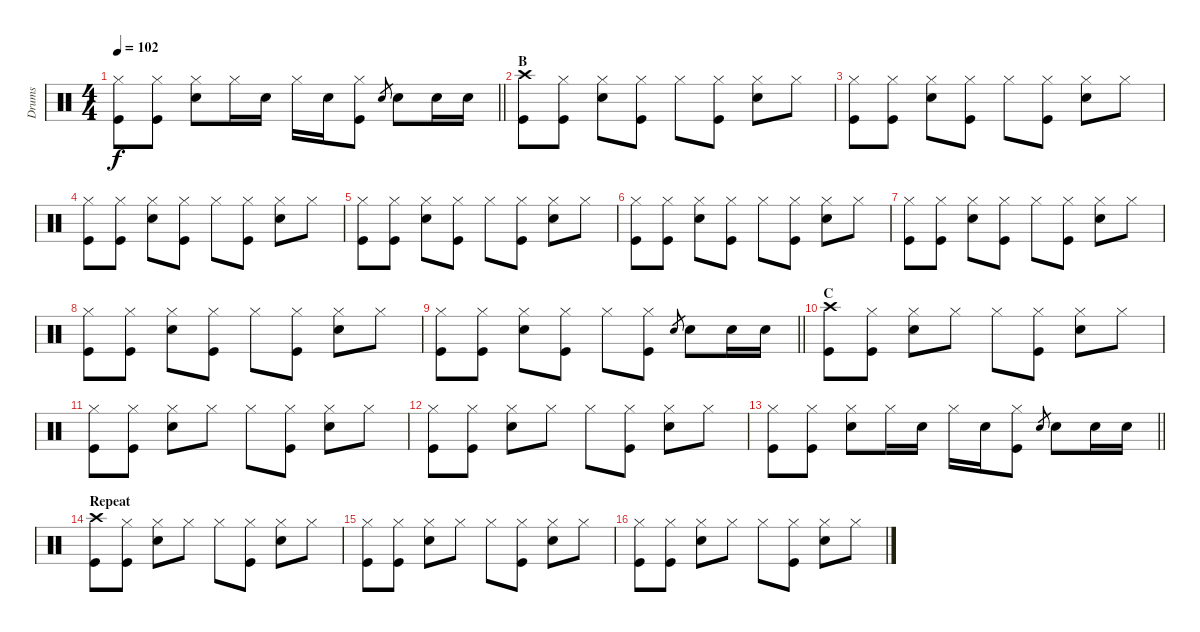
\track ("Drums" "Drums") {instrument percussion}
\staff {score}
\articulation defaults
\ts (4 4)
\tempo 102
\clef neutral
\barLineRight lightlight
\ks c
("Hi-Hat (closed)" "Kick (hit)").8{dy f} ("Hi-Hat (closed)" "Kick (hit)").8 ("Hi-Hat (closed)" "Electric Snare (hit)").8 "Hi-Hat (closed)".16 "Electric Snare (hit)".16 "Hi-Hat (closed)".16 "Electric Snare (hit)".16 ("Hi-Hat (closed)" "Kick (hit)").8 "Electric Snare (hit)".8{gr} "Electric Snare (hit)".8 "Electric Snare (hit)".16 "Electric Snare (hit)".16 |
\section ("" "B")
("Crash high (hit)" "Kick (hit)").8 ("Hi-Hat (closed)" "Kick (hit)").8 ("Hi-Hat (closed)" "Electric Snare (hit)").8 ("Hi-Hat (closed)" "Kick (hit)").8 "Hi-Hat (closed)".8 ("Hi-Hat (closed)" "Kick (hit)").8 ("Hi-Hat (closed)" "Electric Snare (hit)").8 "Hi-Hat (closed)".8 |
("Hi-Hat (closed)" "Kick (hit)").8 ("Hi-Hat (closed)" "Kick (hit)").8 ("Hi-Hat (closed)" "Electric Snare (hit)").8 ("Hi-Hat (closed)" "Kick (hit)").8 "Hi-Hat (closed)".8 ("Hi-Hat (closed)" "Kick (hit)").8 ("Hi-Hat (closed)" "Electric Snare (hit)").8 "Hi-Hat (closed)".8 |
("Hi-Hat (closed)" "Kick (hit)").8 ("Hi-Hat (closed)" "Kick (hit)").8 ("Hi-Hat (closed)" "Electric Snare (hit)").8 ("Hi-Hat (closed)" "Kick (hit)").8 "Hi-Hat (closed)".8 ("Hi-Hat (closed)" "Kick (hit)").8 ("Hi-Hat (closed)" "Electric Snare (hit)").8 "Hi-Hat (closed)".8 |
("Hi-Hat (closed)" "Kick (hit)").8 ("Hi-Hat (closed)" "Kick (hit)").8 ("Hi-Hat (closed)" "Electric Snare (hit)").8 ("Hi-Hat (closed)" "Kick (hit)").8 "Hi-Hat (closed)".8 ("Hi-Hat (closed)" "Kick (hit)").8 ("Hi-Hat (closed)" "Electric Snare (hit)").8 "Hi-Hat (closed)".8 |
("Hi-Hat (closed)" "Kick (hit)").8 ("Hi-Hat (closed)" "Kick (hit)").8 ("Hi-Hat (closed)" "Electric Snare (hit)").8 ("Hi-Hat (closed)" "Kick (hit)").8 "Hi-Hat (closed)".8 ("Hi-Hat (closed)" "Kick (hit)").8 ("Hi-Hat (closed)" "Electric Snare (hit)").8 "Hi-Hat (closed)".8 |
("Hi-Hat (closed)" "Kick (hit)").8 ("Hi-Hat (closed)" "Kick (hit)").8 ("Hi-Hat (closed)" "Electric Snare (hit)").8 ("Hi-Hat (closed)" "Kick (hit)").8 "Hi-Hat (closed)".8 ("Hi-Hat (closed)" "Kick (hit)").8 ("Hi-Hat (closed)" "Electric Snare (hit)").8 "Hi-Hat (closed)".8 |
("Hi-Hat (closed)" "Kick (hit)").8 ("Hi-Hat (closed)" "Kick (hit)").8 ("Hi-Hat (closed)" "Electric Snare (hit)").8 ("Hi-Hat (closed)" "Kick (hit)").8 "Hi-Hat (closed)".8 ("Hi-Hat (closed)" "Kick (hit)").8 ("Hi-Hat (closed)" "Electric Snare (hit)").8 "Hi-Hat (closed)".8 |
\barLineRight lightlight
("Hi-Hat (closed)" "Kick (hit)").8 ("Hi-Hat (closed)" "Kick (hit)").8 ("Hi-Hat (closed)" "Electric Snare (hit)").8 ("Hi-Hat (closed)" "Kick (hit)").8 "Hi-Hat (closed)".8 ("Hi-Hat (closed)" "Kick (hit)").8 "Electric Snare (hit)".8{gr} "Electric Snare (hit)".8 "Electric Snare (hit)".16 "Electric Snare (hit)".16 |
\section ("" "C")
("Crash high (hit)" "Kick (hit)").8 ("Hi-Hat (closed)" "Kick (hit)").8 ("Hi-Hat (closed)" "Electric Snare (hit)").8 "Hi-Hat (closed)".8 "Hi-Hat (closed)".8 ("Hi-Hat (closed)" "Kick (hit)").8 ("Hi-Hat (closed)" "Electric Snare (hit)").8 "Hi-Hat (closed)".8 |
("Hi-Hat (closed)" "Kick (hit)").8 ("Hi-Hat (closed)" "Kick (hit)").8 ("Hi-Hat (closed)" "Electric Snare (hit)").8 "Hi-Hat (closed)".8 "Hi-Hat (closed)".8 ("Hi-Hat (closed)" "Kick (hit)").8 ("Hi-Hat (closed)" "Electric Snare (hit)").8 "Hi-Hat (closed)".8 |
("Hi-Hat (closed)" "Kick (hit)").8 ("Hi-Hat (closed)" "Kick (hit)").8 ("Hi-Hat (closed)" "Electric Snare (hit)").8 "Hi-Hat (closed)".8 "Hi-Hat (closed)".8 ("Hi-Hat (closed)" "Kick (hit)").8 ("Hi-Hat (closed)" "Electric Snare (hit)").8 "Hi-Hat (closed)".8 |
\barLineRight lightlight
("Hi-Hat (closed)" "Kick (hit)").8 ("Hi-Hat (closed)" "Kick (hit)").8 ("Hi-Hat (closed)" "Electric Snare (hit)").8 "Hi-Hat (closed)".16 "Electric Snare (hit)".16 "Hi-Hat (closed)".16 "Electric Snare (hit)".16 ("Hi-Hat (closed)" "Kick (hit)").8 "Electric Snare (hit)".8{gr} "Electric Snare (hit)".8 "Electric Snare (hit)".16 "Electric Snare (hit)".16 |
\section ("" "Repeat")
("Crash high (hit)" "Kick (hit)").8 ("Hi-Hat (closed)" "Kick (hit)").8 ("Hi-Hat (closed)" "Electric Snare (hit)").8 "Hi-Hat (closed)".8 "Hi-Hat (closed)".8 ("Hi-Hat (closed)" "Kick (hit)").8 ("Hi-Hat (closed)" "Electric Snare (hit)").8 "Hi-Hat (closed)".8 |
("Hi-Hat (closed)" "Kick (hit)").8 ("Hi-Hat (closed)" "Kick (hit)").8 ("Hi-Hat (closed)" "Electric Snare (hit)").8 "Hi-Hat (closed)".8 "Hi-Hat (closed)".8 ("Hi-Hat (closed)" "Kick (hit)").8 ("Hi-Hat (closed)" "Electric Snare (hit)").8 "Hi-Hat (closed)".8 |
("Hi-Hat (closed)" "Kick (hit)").8 ("Hi-Hat (closed)" "Kick (hit)").8 ("Hi-Hat (closed)" "Electric Snare (hit)").8 "Hi-Hat (closed)".8 "Hi-Hat (closed)".8 ("Hi-Hat (closed)" "Kick (hit)").8 ("Hi-Hat (closed)" "Electric Snare (hit)").8 "Hi-Hat (closed)".8
